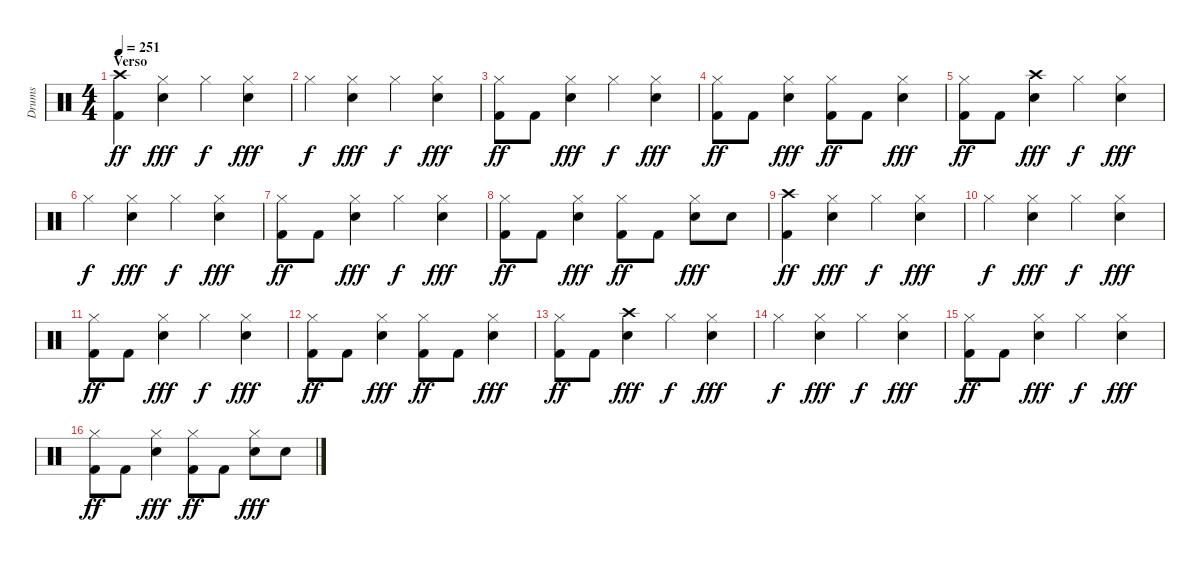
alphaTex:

\track ("Drums" "Drums") {instrument percussion}
\staff {score}
\articulation defaults
\ts (4 4)
\section ("" "Verso")
\tempo 251
\clef neutral
\ks c
("Crash high (hit)" "Kick (hit) 2").4{dy ff} ("Hi-Hat (closed)" "Electric Snare (hit)").4{dy fff} "Hi-Hat (closed)".4{dy f} ("Hi-Hat (closed)" "Electric Snare (hit)").4{dy fff} |
"Hi-Hat (closed)".4{dy f} ("Hi-Hat (closed)" "Electric Snare (hit)").4{dy fff} "Hi-Hat (closed)".4{dy f} ("Hi-Hat (closed)" "Electric Snare (hit)").4{dy fff} |
("Hi-Hat (closed)" "Kick (hit) 2").8{dy ff} "Kick (hit) 2".8 ("Hi-Hat (closed)" "Electric Snare (hit)").4{dy fff} "Hi-Hat (closed)".4{dy f} ("Hi-Hat (closed)" "Electric Snare (hit)").4{dy fff} |
("Hi-Hat (closed)" "Kick (hit) 2").8{dy ff} "Kick (hit) 2".8 ("Hi-Hat (closed)" "Electric Snare (hit)").4{dy fff} ("Hi-Hat (closed)" "Kick (hit) 2").8{dy ff} "Kick (hit) 2".8 ("Hi-Hat (closed)" "Electric Snare (hit)").4{dy fff} |
("Hi-Hat (closed)" "Kick (hit) 2").8{dy ff} "Kick (hit) 2".8 ("Crash high (hit)" "Electric Snare (hit)").4{dy fff} "Hi-Hat (closed)".4{dy f} ("Hi-Hat (closed)" "Electric Snare (hit)").4{dy fff} |
"Hi-Hat (closed)".4{dy f} ("Hi-Hat (closed)" "Electric Snare (hit)").4{dy fff} "Hi-Hat (closed)".4{dy f} ("Hi-Hat (closed)" "Electric Snare (hit)").4{dy fff} |
("Hi-Hat (closed)" "Kick (hit) 2").8{dy ff} "Kick (hit) 2".8 ("Hi-Hat (closed)" "Electric Snare (hit)").4{dy fff} "Hi-Hat (closed)".4{dy f} ("Hi-Hat (closed)" "Electric Snare (hit)").4{dy fff} |
("Hi-Hat (closed)" "Kick (hit) 2").8{dy ff} "Kick (hit) 2".8 ("Hi-Hat (closed)" "Electric Snare (hit)").4{dy fff} ("Hi-Hat (closed)" "Kick (hit) 2").8{dy ff} "Kick (hit) 2".8 ("Hi-Hat (closed)" "Electric Snare (hit)").8{dy fff} "Electric Snare (hit)".8 |
("Crash high (hit)" "Kick (hit) 2").4{dy ff} ("Hi-Hat (closed)" "Electric Snare (hit)").4{dy fff} "Hi-Hat (closed)".4{dy f} ("Hi-Hat (closed)" "Electric Snare (hit)").4{dy fff} |
"Hi-Hat (closed)".4{dy f} ("Hi-Hat (closed)" "Electric Snare (hit)").4{dy fff} "Hi-Hat (closed)".4{dy f} ("Hi-Hat (closed)" "Electric Snare (hit)").4{dy fff} |
("Hi-Hat (closed)" "Kick (hit) 2").8{dy ff} "Kick (hit) 2".8 ("Hi-Hat (closed)" "Electric Snare (hit)").4{dy fff} "Hi-Hat (closed)".4{dy f} ("Hi-Hat (closed)" "Electric Snare (hit)").4{dy fff} |
("Hi-Hat (closed)" "Kick (hit) 2").8{dy ff} "Kick (hit) 2".8 ("Hi-Hat (closed)" "Electric Snare (hit)").4{dy fff} ("Hi-Hat (closed)" "Kick (hit) 2").8{dy ff} "Kick (hit) 2".8 ("Hi-Hat (closed)" "Electric Snare (hit)").4{dy fff} |
("Hi-Hat (closed)" "Kick (hit) 2").8{dy ff} "Kick (hit) 2".8 ("Crash high (hit)" "Electric Snare (hit)").4{dy fff} "Hi-Hat (closed)".4{dy f} ("Hi-Hat (closed)" "Electric Snare (hit)").4{dy fff} |
"Hi-Hat (closed)".4{dy f} ("Hi-Hat (closed)" "Electric Snare (hit)").4{dy fff} "Hi-Hat (closed)".4{dy f} ("Hi-Hat (closed)" "Electric Snare (hit)").4{dy fff} |
("Hi-Hat (closed)" "Kick (hit) 2").8{dy ff} "Kick (hit) 2".8 ("Hi-Hat (closed)" "Electric Snare (hit)").4{dy fff} "Hi-Hat (closed)".4{dy f} ("Hi-Hat (closed)" "Electric Snare (hit)").4{dy fff} |
("Hi-Hat (closed)" "Kick (hit) 2").8{dy ff} "Kick (hit) 2".8 ("Hi-Hat (closed)" "Electric Snare (hit)").4{dy fff} ("Hi-Hat (closed)" "Kick (hit) 2").8{dy ff} "Kick (hit) 2".8 ("Hi-Hat (closed)" "Electric Snare (hit)").8{dy fff} "Electric Snare (hit)".8
